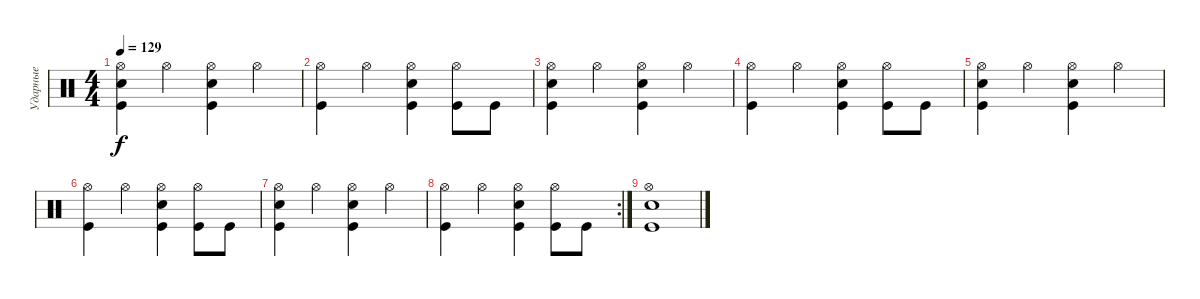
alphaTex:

\track ("Ударные" "Ударные") {instrument percussion}
\staff {score}
\articulation defaults
\ts (4 4)
\tempo 129
\clef neutral
\ks c
("Hi-Hat (open)" "Snare (hit) 2" "Kick (hit)").4{dy f} "Hi-Hat (open)".4 ("Kick (hit)" "Hi-Hat (open)" "Snare (hit) 2").4 "Hi-Hat (open)".4 |
("Hi-Hat (open)" "Kick (hit)").4 "Hi-Hat (open)".4 ("Kick (hit)" "Hi-Hat (open)" "Snare (hit) 2").4 ("Hi-Hat (open)" "Kick (hit)").8 "Kick (hit)".8 |
("Hi-Hat (open)" "Snare (hit) 2" "Kick (hit)").4 "Hi-Hat (open)".4 ("Kick (hit)" "Hi-Hat (open)" "Snare (hit) 2").4 "Hi-Hat (open)".4 |
("Hi-Hat (open)" "Kick (hit)").4 "Hi-Hat (open)".4 ("Kick (hit)" "Hi-Hat (open)" "Snare (hit) 2").4 ("Hi-Hat (open)" "Kick (hit)").8 "Kick (hit)".8 |
("Hi-Hat (open)" "Snare (hit) 2" "Kick (hit)").4 "Hi-Hat (open)".4 ("Kick (hit)" "Hi-Hat (open)" "Snare (hit) 2").4 "Hi-Hat (open)".4 |
("Hi-Hat (open)" "Kick (hit)").4 "Hi-Hat (open)".4 ("Kick (hit)" "Hi-Hat (open)" "Snare (hit) 2").4 ("Hi-Hat (open)" "Kick (hit)").8 "Kick (hit)".8 |
("Hi-Hat (open)" "Snare (hit) 2" "Kick (hit)").4 "Hi-Hat (open)".4 ("Kick (hit)" "Hi-Hat (open)" "Snare (hit) 2").4 "Hi-Hat (open)".4 |
\rc 2
("Hi-Hat (open)" "Kick (hit)").4 "Hi-Hat (open)".4 ("Kick (hit)" "Hi-Hat (open)" "Snare (hit) 2").4 ("Hi-Hat (open)" "Kick (hit)").8 "Kick (hit)".8 |
("Hi-Hat (open)" "Kick (hit)" "Snare (hit) 2").1
